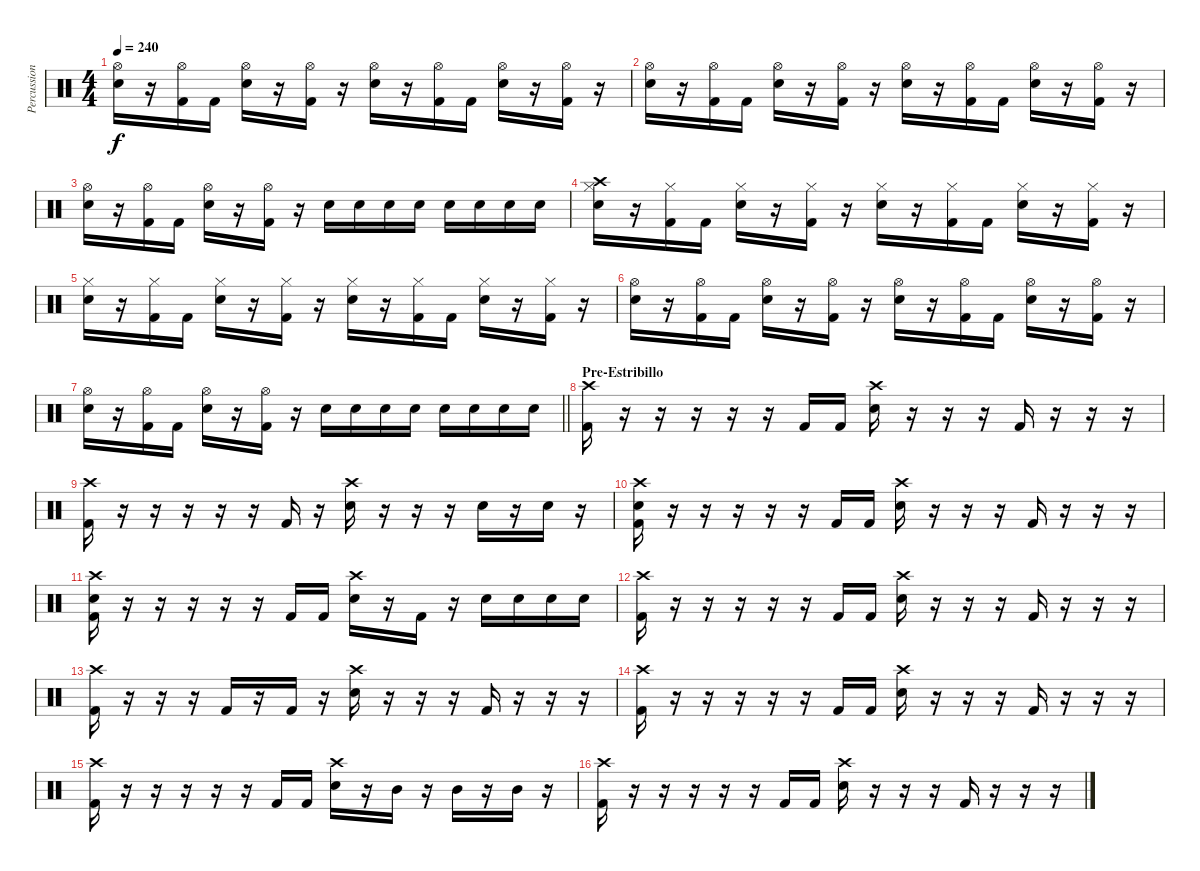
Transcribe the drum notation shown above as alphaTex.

\track ("Percussion" "Percussion") {instrument percussion}
\staff {score}
\articulation defaults
\ts (4 4)
\tempo 240
\clef neutral
\ks c
("Hi-Hat (open)" "Electric Snare (hit)").16{dy f} r.16 ("Hi-Hat (open)" "Kick (hit) 2").16 "Kick (hit) 2".16 ("Hi-Hat (open)" "Electric Snare (hit)").16 r.16 ("Hi-Hat (open)" "Kick (hit) 2").16 r.16 ("Hi-Hat (open)" "Electric Snare (hit)").16 r.16 ("Hi-Hat (open)" "Kick (hit) 2").16 "Kick (hit) 2".16 ("Hi-Hat (open)" "Electric Snare (hit)").16 r.16 ("Hi-Hat (open)" "Kick (hit) 2").16 r.16 |
("Hi-Hat (open)" "Electric Snare (hit)").16 r.16 ("Hi-Hat (open)" "Kick (hit) 2").16 "Kick (hit) 2".16 ("Hi-Hat (open)" "Electric Snare (hit)").16 r.16 ("Hi-Hat (open)" "Kick (hit) 2").16 r.16 ("Hi-Hat (open)" "Electric Snare (hit)").16 r.16 ("Hi-Hat (open)" "Kick (hit) 2").16 "Kick (hit) 2".16 ("Hi-Hat (open)" "Electric Snare (hit)").16 r.16 ("Hi-Hat (open)" "Kick (hit) 2").16 r.16 |
("Hi-Hat (open)" "Electric Snare (hit)").16 r.16 ("Hi-Hat (open)" "Kick (hit) 2").16 "Kick (hit) 2".16 ("Hi-Hat (open)" "Electric Snare (hit)").16 r.16 ("Hi-Hat (open)" "Kick (hit) 2").16 r.16 "Electric Snare (hit)".16 "Electric Snare (hit)".16 "Electric Snare (hit)".16 "Electric Snare (hit)".16 "Electric Snare (hit)".16 "Electric Snare (hit)".16 "Electric Snare (hit)".16 "Electric Snare (hit)".16 |
("Crash high (hit)" "Hi-Hat (closed)" "Electric Snare (hit)").16 r.16 ("Hi-Hat (closed)" "Kick (hit) 2").16 "Kick (hit) 2".16 ("Hi-Hat (closed)" "Electric Snare (hit)").16 r.16 ("Hi-Hat (closed)" "Kick (hit) 2").16 r.16 ("Hi-Hat (closed)" "Electric Snare (hit)").16 r.16 ("Hi-Hat (closed)" "Kick (hit) 2").16 "Kick (hit) 2".16 ("Hi-Hat (closed)" "Electric Snare (hit)").16 r.16 ("Hi-Hat (closed)" "Kick (hit) 2").16 r.16 |
("Hi-Hat (closed)" "Electric Snare (hit)").16 r.16 ("Hi-Hat (closed)" "Kick (hit) 2").16 "Kick (hit) 2".16 ("Hi-Hat (closed)" "Electric Snare (hit)").16 r.16 ("Hi-Hat (closed)" "Kick (hit) 2").16 r.16 ("Hi-Hat (closed)" "Electric Snare (hit)").16 r.16 ("Hi-Hat (closed)" "Kick (hit) 2").16 "Kick (hit) 2".16 ("Hi-Hat (closed)" "Electric Snare (hit)").16 r.16 ("Hi-Hat (closed)" "Kick (hit) 2").16 r.16 |
("Hi-Hat (open)" "Electric Snare (hit)").16 r.16 ("Hi-Hat (open)" "Kick (hit) 2").16 "Kick (hit) 2".16 ("Hi-Hat (open)" "Electric Snare (hit)").16 r.16 ("Hi-Hat (open)" "Kick (hit) 2").16 r.16 ("Hi-Hat (open)" "Electric Snare (hit)").16 r.16 ("Hi-Hat (open)" "Kick (hit) 2").16 "Kick (hit) 2".16 ("Hi-Hat (open)" "Electric Snare (hit)").16 r.16 ("Hi-Hat (open)" "Kick (hit) 2").16 r.16 |
\barLineRight lightlight
("Hi-Hat (open)" "Electric Snare (hit)").16 r.16 ("Hi-Hat (open)" "Kick (hit) 2").16 "Kick (hit) 2".16 ("Hi-Hat (open)" "Electric Snare (hit)").16 r.16 ("Hi-Hat (open)" "Kick (hit) 2").16 r.16 "Electric Snare (hit)".16 "Electric Snare (hit)".16 "Electric Snare (hit)".16 "Electric Snare (hit)".16 "Electric Snare (hit)".16 "Electric Snare (hit)".16 "Electric Snare (hit)".16 "Electric Snare (hit)".16 |
\section ("" "Pre-Estribillo")
("Crash high (hit)" "Kick (hit) 2").16 r.16 r.16 r.16 r.16 r.16 "Kick (hit) 2".16 "Kick (hit) 2".16 ("Crash high (hit)" "Electric Snare (hit)").16 r.16 r.16 r.16 "Kick (hit) 2".16 r.16 r.16 r.16 |
("Crash high (hit)" "Kick (hit) 2").16 r.16 r.16 r.16 r.16 r.16 "Kick (hit) 2".16 r.16 ("Crash high (hit)" "Electric Snare (hit)").16 r.16 r.16 r.16 "Electric Snare (hit)".16 r.16 "Electric Snare (hit)".16 r.16 |
("Crash high (hit)" "Electric Snare (hit)" "Kick (hit) 2").16 r.16 r.16 r.16 r.16 r.16 "Kick (hit) 2".16 "Kick (hit) 2".16 ("Crash high (hit)" "Electric Snare (hit)").16 r.16 r.16 r.16 "Kick (hit) 2".16 r.16 r.16 r.16 |
("Crash high (hit)" "Electric Snare (hit)" "Kick (hit) 2").16 r.16 r.16 r.16 r.16 r.16 "Kick (hit) 2".16 "Kick (hit) 2".16 ("Crash high (hit)" "Electric Snare (hit)").16 r.16 "Kick (hit) 2".16 r.16 "Electric Snare (hit)".16 "Electric Snare (hit)".16 "Electric Snare (hit)".16 "Electric Snare (hit)".16 |
("Crash high (hit)" "Kick (hit) 2").16 r.16 r.16 r.16 r.16 r.16 "Kick (hit) 2".16 "Kick (hit) 2".16 ("Crash high (hit)" "Electric Snare (hit)").16 r.16 r.16 r.16 "Kick (hit) 2".16 r.16 r.16 r.16 |
("Crash high (hit)" "Kick (hit) 2").16 r.16 r.16 r.16 "Kick (hit) 2".16 r.16 "Kick (hit) 2".16 r.16 ("Crash high (hit)" "Electric Snare (hit)").16 r.16 r.16 r.16 "Kick (hit) 2".16 r.16 r.16 r.16 |
("Crash high (hit)" "Kick (hit) 2").16 r.16 r.16 r.16 r.16 r.16 "Kick (hit) 2".16 "Kick (hit) 2".16 ("Crash high (hit)" "Electric Snare (hit)").16 r.16 r.16 r.16 "Kick (hit) 2".16 r.16 r.16 r.16 |
("Crash high (hit)" "Kick (hit) 2").16 r.16 r.16 r.16 r.16 r.16 "Kick (hit) 2".16 "Kick (hit) 2".16 ("Crash high (hit)" "Electric Snare (hit)").16 r.16 "Mid Tom (hit)".16 r.16 "Mid Tom (hit)".16 r.16 "Mid Tom (hit)".16 r.16 |
("Crash high (hit)" "Kick (hit) 2").16 r.16 r.16 r.16 r.16 r.16 "Kick (hit) 2".16 "Kick (hit) 2".16 ("Crash high (hit)" "Electric Snare (hit)").16 r.16 r.16 r.16 "Kick (hit) 2".16 r.16 r.16 r.16
